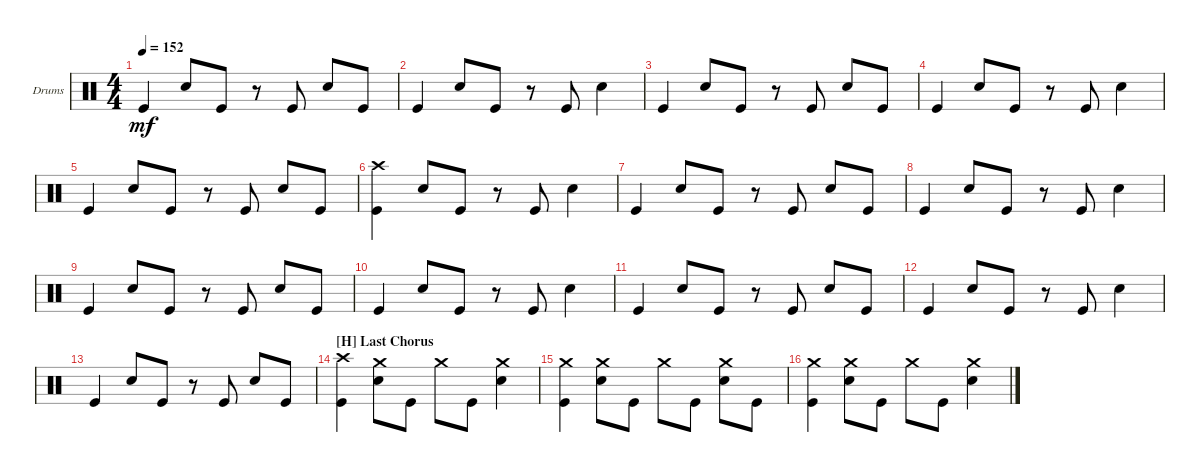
\defaultSystemsLayout 4
\bracketExtendMode groupsimilarinstruments
\firstSystemTrackNameOrientation horizontal
\otherSystemsTrackNameOrientation horizontal
\track ("Drums" "Drums") {instrument percussion}
\staff {score}
\articulation defaults
\ts (4 4)
\tempo 152
\clef neutral
\ks c "Kick (hit)".4{dy mf} "Snare (hit) 2".8 "Kick (hit)".8
r.8 "Kick (hit)".8 "Snare (hit) 2".8 "Kick (hit)".8 |
"Kick (hit)".4 "Snare (hit) 2".8 "Kick (hit)".8 r.8 "Kick (hit)".8 "Snare (hit) 2".4 |
"Kick (hit)".4 "Snare (hit) 2".8 "Kick (hit)".8 r.8 "Kick (hit)".8 "Snare (hit) 2".8 "Kick (hit)".8 |
"Kick (hit)".4 "Snare (hit) 2".8 "Kick (hit)".8 r.8 "Kick (hit)".8 "Snare (hit) 2".4 |
"Kick (hit)".4 "Snare (hit) 2".8 "Kick (hit)".8 r.8 "Kick (hit)".8 "Snare (hit) 2".8 "Kick (hit)".8 |
("Kick (hit)" "Crash high (hit)").4 "Snare (hit) 2".8 "Kick (hit)".8 r.8 "Kick (hit)".8 "Snare (hit) 2".4 |
"Kick (hit)".4 "Snare (hit) 2".8 "Kick (hit)".8 r.8 "Kick (hit)".8 "Snare (hit) 2".8 "Kick (hit)".8 |
"Kick (hit)".4 "Snare (hit) 2".8 "Kick (hit)".8 r.8 "Kick (hit)".8 "Snare (hit) 2".4 |
"Kick (hit)".4 "Snare (hit) 2".8 "Kick (hit)".8 r.8 "Kick (hit)".8 "Snare (hit) 2".8 "Kick (hit)".8 |
"Kick (hit)".4 "Snare (hit) 2".8 "Kick (hit)".8 r.8 "Kick (hit)".8 "Snare (hit) 2".4 |
"Kick (hit)".4 "Snare (hit) 2".8 "Kick (hit)".8 r.8 "Kick (hit)".8 "Snare (hit) 2".8 "Kick (hit)".8 |
"Kick (hit)".4 "Snare (hit) 2".8 "Kick (hit)".8 r.8 "Kick (hit)".8 "Snare (hit) 2".4 |
"Kick (hit)".4 "Snare (hit) 2".8 "Kick (hit)".8 r.8 "Kick (hit)".8 "Snare (hit) 2".8 "Kick (hit)".8 |
\section ("H" "Last Chorus")
("Kick (hit)" "Crash high (hit)").4 ("Snare (hit) 2" "Crash medium (hit)").8 "Kick (hit)".8 "Crash medium (hit)".8 "Kick (hit)".8 ("Snare (hit) 2" "Crash medium (hit)").4 |
("Kick (hit)" "Crash medium (hit)").4 ("Snare (hit) 2" "Crash medium (hit)").8 "Kick (hit)".8 "Crash medium (hit)".8 "Kick (hit)".8 ("Snare (hit) 2" "Crash medium (hit)").8 "Kick (hit)".8 |
("Kick (hit)" "Crash medium (hit)").4 ("Snare (hit) 2" "Crash medium (hit)").8 "Kick (hit)".8 "Crash medium (hit)".8 "Kick (hit)".8 ("Snare (hit) 2" "Crash medium (hit)").4
